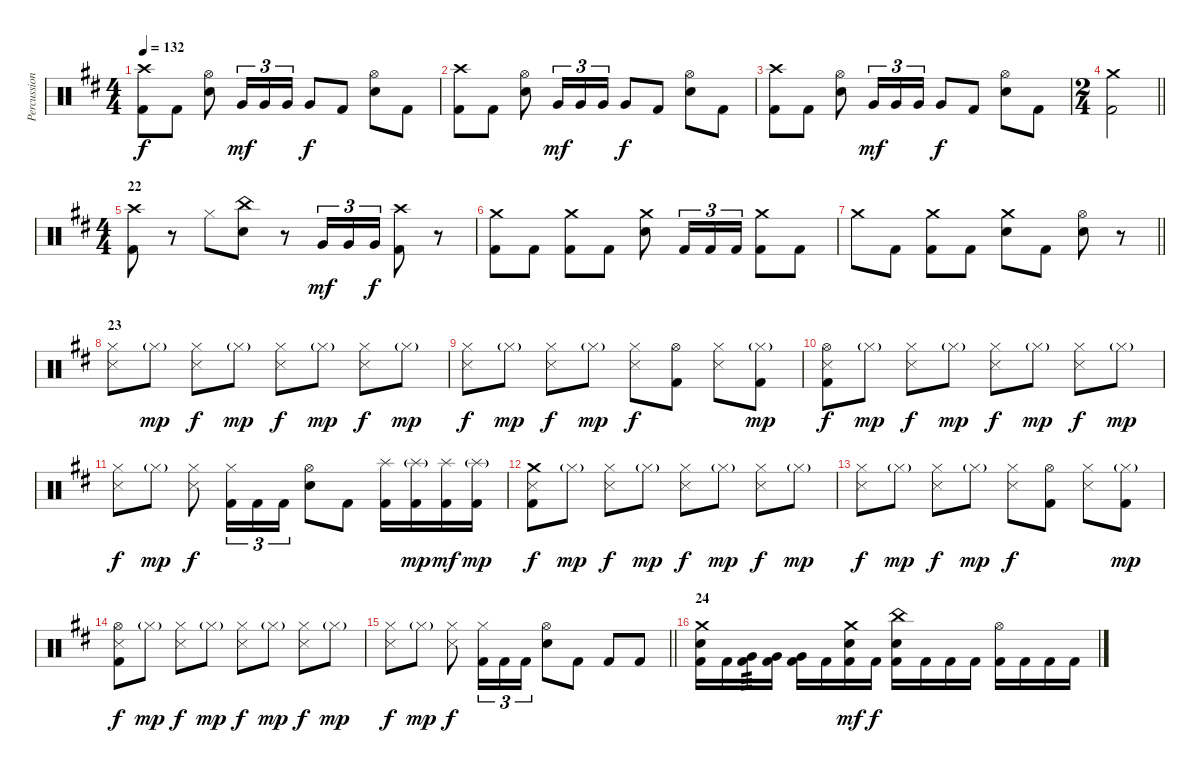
\track ("Percussion" "Percussion") {instrument percussion}
\staff {score}
\articulation defaults
\ts (4 4)
\tempo 132
\clef neutral
\ks bminor
("Crash high (hit)" "Kick (hit) 2").8{dy f} "Kick (hit) 2".8 ("Hi-Hat (open)" "Snare (hit) 2").8 "Very Low Tom (hit)".16{tu (3 2) dy mf} "Very Low Tom (hit)".16{tu (3 2)} "Very Low Tom (hit)".16{tu (3 2)} "Very Low Tom (hit)".8{dy f} "Kick (hit) 2".8 ("Hi-Hat (open)" "Snare (hit) 2").8 "Kick (hit) 2".8 |
("Crash high (hit)" "Kick (hit) 2").8 "Kick (hit) 2".8 ("Hi-Hat (open)" "Snare (hit) 2").8 "Very Low Tom (hit)".16{tu (3 2) dy mf} "Very Low Tom (hit)".16{tu (3 2)} "Very Low Tom (hit)".16{tu (3 2)} "Very Low Tom (hit)".8{dy f} "Kick (hit) 2".8 ("Hi-Hat (open)" "Snare (hit) 2").8 "Kick (hit) 2".8 |
("Crash high (hit)" "Kick (hit) 2").8 "Kick (hit) 2".8 ("Hi-Hat (open)" "Snare (hit) 2").8 "Very Low Tom (hit)".16{tu (3 2) dy mf} "Very Low Tom (hit)".16{tu (3 2)} "Very Low Tom (hit)".16{tu (3 2)} "Very Low Tom (hit)".8{dy f} "Kick (hit) 2".8 ("Hi-Hat (open)" "Snare (hit) 2").8 "Kick (hit) 2".8 |
\ts (2 4)
\barLineRight lightlight
("Crash medium (hit)" "Kick (hit) 2").2 |
\ts (4 4)
\section ("" "22")
("Crash high (hit)" "Kick (hit) 2").8 r.8 "Hi-Hat (closed)".8 ("China (hit)" "Snare (hit) 2").8 r.8 "Very Low Tom (hit)".16{tu (3 2) dy mf} "Very Low Tom (hit)".16{tu (3 2)} "Very Low Tom (hit)".16{tu (3 2) dy f} ("Crash high (hit)" "Kick (hit) 2").8 r.8 |
("Crash medium (hit)" "Kick (hit) 2").8 "Kick (hit) 2".8 ("Crash medium (hit)" "Kick (hit) 2").8 "Kick (hit) 2".8 ("Crash medium (hit)" "Snare (hit) 2").8 "Kick (hit) 2".16{tu (3 2)} "Kick (hit) 2".16{tu (3 2)} "Kick (hit) 2".16{tu (3 2)} ("Crash medium (hit)" "Kick (hit) 2").8 "Kick (hit) 2".8 |
\barLineRight lightlight "Crash medium (hit)".8 "Kick (hit) 2".8
("Crash medium (hit)" "Kick (hit) 2").8 "Kick (hit) 2".8 ("Crash medium (hit)" "Snare (hit) 2").8 "Kick (hit) 2".8 ("Hi-Hat (open)" "Snare (hit) 2").8 r.8 |
\section ("" "23")
("Hi-Hat (closed)" "Snare (side stick) 3").8 "Hi-Hat (closed)"{g}.8{dy mp} ("Hi-Hat (closed)" "Snare (side stick) 3").8{dy f} "Hi-Hat (closed)"{g}.8{dy mp} ("Hi-Hat (closed)" "Snare (side stick) 3").8{dy f} "Hi-Hat (closed)"{g}.8{dy mp} ("Hi-Hat (closed)" "Snare (side stick) 3").8{dy f} "Hi-Hat (closed)"{g}.8{dy mp} |
("Hi-Hat (closed)" "Snare (side stick) 3").8{dy f} "Hi-Hat (closed)"{g}.8{dy mp} ("Hi-Hat (closed)" "Snare (side stick) 3").8{dy f} "Hi-Hat (closed)"{g}.8{dy mp} ("Hi-Hat (closed)" "Snare (side stick) 3").8{dy f} ("Hi-Hat (open)" "Kick (hit) 2").8 ("Hi-Hat (closed)" "Snare (side stick) 3").8 ("Hi-Hat (closed)"{g} "Kick (hit) 2").8{dy mp} |
("Hi-Hat (open)" "Snare (side stick) 3" "Kick (hit) 2").8{dy f} "Hi-Hat (closed)"{g}.8{dy mp} ("Hi-Hat (closed)" "Snare (side stick) 3").8{dy f} "Hi-Hat (closed)"{g}.8{dy mp} ("Hi-Hat (closed)" "Snare (side stick) 3").8{dy f} "Hi-Hat (closed)"{g}.8{dy mp} ("Hi-Hat (closed)" "Snare (side stick) 3").8{dy f} "Hi-Hat (closed)"{g}.8{dy mp} |
("Hi-Hat (closed)" "Snare (side stick) 3").8{dy f} "Hi-Hat (closed)"{g}.8{dy mp} ("Hi-Hat (closed)" "Snare (side stick) 3").8{dy f} ("Hi-Hat (closed)" "Kick (hit) 2").16{tu (3 2)} "Kick (hit) 2".16{tu (3 2)} "Kick (hit) 2".16{tu (3 2)} ("Hi-Hat (open)" "Snare (hit) 2").8 "Kick (hit) 2".8 ("Splash (hit)" "Kick (hit) 2").16 ("Splash (hit)"{g} "Kick (hit) 2").16{dy mp} ("Splash (hit)" "Kick (hit) 2").16{dy mf} ("Splash (hit)"{g} "Kick (hit) 2").16{dy mp} |
("Crash medium (hit)" "Snare (side stick) 3" "Kick (hit) 2").8{dy f} "Hi-Hat (closed)"{g}.8{dy mp} ("Hi-Hat (closed)" "Snare (side stick) 3").8{dy f} "Hi-Hat (closed)"{g}.8{dy mp} ("Hi-Hat (closed)" "Snare (side stick) 3").8{dy f} "Hi-Hat (closed)"{g}.8{dy mp} ("Hi-Hat (closed)" "Snare (side stick) 3").8{dy f} "Hi-Hat (closed)"{g}.8{dy mp} |
("Hi-Hat (closed)" "Snare (side stick) 3").8{dy f} "Hi-Hat (closed)"{g}.8{dy mp} ("Hi-Hat (closed)" "Snare (side stick) 3").8{dy f} "Hi-Hat (closed)"{g}.8{dy mp} ("Hi-Hat (closed)" "Snare (side stick) 3").8{dy f} ("Hi-Hat (open)" "Kick (hit) 2").8 ("Hi-Hat (closed)" "Snare (side stick) 3").8 ("Hi-Hat (closed)"{g} "Kick (hit) 2").8{dy mp} |
("Hi-Hat (open)" "Snare (side stick) 3" "Kick (hit) 2").8{dy f} "Hi-Hat (closed)"{g}.8{dy mp} ("Hi-Hat (closed)" "Snare (side stick) 3").8{dy f} "Hi-Hat (closed)"{g}.8{dy mp} ("Hi-Hat (closed)" "Snare (side stick) 3").8{dy f} "Hi-Hat (closed)"{g}.8{dy mp} ("Hi-Hat (closed)" "Snare (side stick) 3").8{dy f} "Hi-Hat (closed)"{g}.8{dy mp} |
\barLineRight lightlight
("Hi-Hat (closed)" "Snare (side stick) 3").8{dy f} "Hi-Hat (closed)"{g}.8{dy mp} ("Hi-Hat (closed)" "Snare (side stick) 3").8{dy f} ("Hi-Hat (closed)" "Kick (hit) 2").16{tu (3 2)} "Kick (hit) 2".16{tu (3 2)} "Kick (hit) 2".16{tu (3 2)} ("Hi-Hat (open)" "Snare (hit) 2").8 "Kick (hit) 2".8 "Kick (hit) 2".8 "Kick (hit) 2".8 |
\section ("" "24")
("Crash medium (hit)" "Snare (hit) 2" "Kick (hit) 2").16 "Kick (hit) 2".16 ("Very Low Tom (hit)" "Kick (hit) 2").16{tp 3} ("Very Low Tom (hit)" "Kick (hit) 2").16 ("Very Low Tom (hit)" "Kick (hit) 2").16 "Kick (hit) 2".16 ("Crash medium (hit)" "Snare (hit) 2" "Kick (hit) 2").16{dy mf} "Kick (hit) 2".16{dy f} ("China (hit)" "Snare (hit) 2" "Kick (hit) 2").16 "Kick (hit) 2".16 "Kick (hit) 2".16 "Kick (hit) 2".16 ("Hi-Hat (open)" "Kick (hit) 2").16 "Kick (hit) 2".16 "Kick (hit) 2".16 "Kick (hit) 2".16
